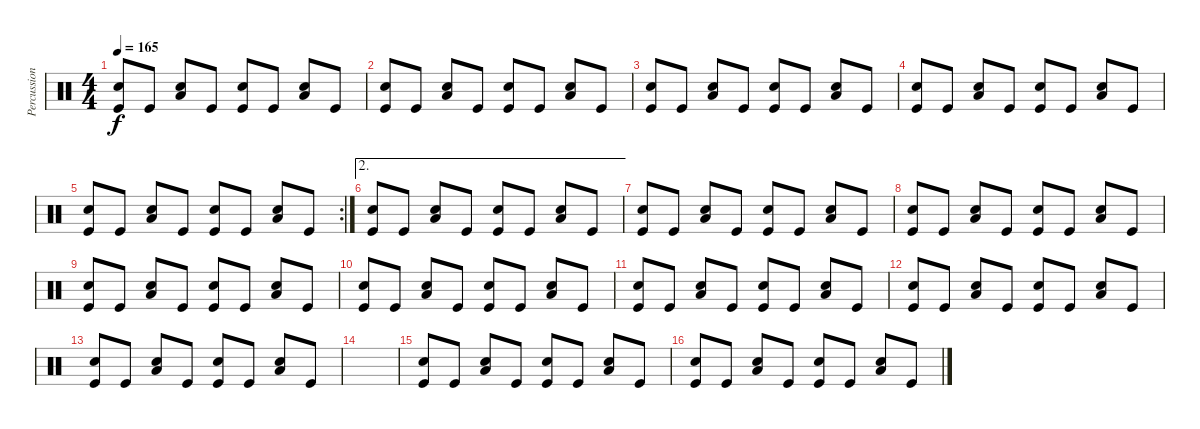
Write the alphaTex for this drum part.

\track ("Percussions" "Percussion") {instrument percussion}
\staff {score}
\articulation defaults
\ts (4 4)
\tempo 165
\clef neutral
\ks c
("Snare (hit) 2" "Kick (hit)").8{dy f} "Kick (hit)".8 ("Snare (hit) 2" "Low Floor Tom (hit)").8 "Kick (hit)".8 ("Snare (hit) 2" "Kick (hit)").8 "Kick (hit)".8 ("Snare (hit) 2" "Low Floor Tom (hit)").8 "Kick (hit)".8 |
("Snare (hit) 2" "Kick (hit)").8 "Kick (hit)".8 ("Snare (hit) 2" "Low Floor Tom (hit)").8 "Kick (hit)".8 ("Snare (hit) 2" "Kick (hit)").8 "Kick (hit)".8 ("Snare (hit) 2" "Low Floor Tom (hit)").8 "Kick (hit)".8 |
("Snare (hit) 2" "Kick (hit)").8 "Kick (hit)".8 ("Snare (hit) 2" "Low Floor Tom (hit)").8 "Kick (hit)".8 ("Snare (hit) 2" "Kick (hit)").8 "Kick (hit)".8 ("Snare (hit) 2" "Low Floor Tom (hit)").8 "Kick (hit)".8 |
("Snare (hit) 2" "Kick (hit)").8 "Kick (hit)".8 ("Snare (hit) 2" "Low Floor Tom (hit)").8 "Kick (hit)".8 ("Snare (hit) 2" "Kick (hit)").8 "Kick (hit)".8 ("Snare (hit) 2" "Low Floor Tom (hit)").8 "Kick (hit)".8 |
\rc 2
("Snare (hit) 2" "Kick (hit)").8 "Kick (hit)".8 ("Snare (hit) 2" "Low Floor Tom (hit)").8 "Kick (hit)".8 ("Snare (hit) 2" "Kick (hit)").8 "Kick (hit)".8 ("Snare (hit) 2" "Low Floor Tom (hit)").8 "Kick (hit)".8 |
\ae 2
("Snare (hit) 2" "Kick (hit)").8 "Kick (hit)".8 ("Snare (hit) 2" "Low Floor Tom (hit)").8 "Kick (hit)".8 ("Snare (hit) 2" "Kick (hit)").8 "Kick (hit)".8 ("Snare (hit) 2" "Low Floor Tom (hit)").8 "Kick (hit)".8 |
("Snare (hit) 2" "Kick (hit)").8 "Kick (hit)".8 ("Snare (hit) 2" "Low Floor Tom (hit)").8 "Kick (hit)".8 ("Snare (hit) 2" "Kick (hit)").8 "Kick (hit)".8 ("Snare (hit) 2" "Low Floor Tom (hit)").8 "Kick (hit)".8 |
("Snare (hit) 2" "Kick (hit)").8 "Kick (hit)".8 ("Snare (hit) 2" "Low Floor Tom (hit)").8 "Kick (hit)".8 ("Snare (hit) 2" "Kick (hit)").8 "Kick (hit)".8 ("Snare (hit) 2" "Low Floor Tom (hit)").8 "Kick (hit)".8 |
("Snare (hit) 2" "Kick (hit)").8 "Kick (hit)".8 ("Snare (hit) 2" "Low Floor Tom (hit)").8 "Kick (hit)".8 ("Snare (hit) 2" "Kick (hit)").8 "Kick (hit)".8 ("Snare (hit) 2" "Low Floor Tom (hit)").8 "Kick (hit)".8 |
("Snare (hit) 2" "Kick (hit)").8 "Kick (hit)".8 ("Snare (hit) 2" "Low Floor Tom (hit)").8 "Kick (hit)".8 ("Snare (hit) 2" "Kick (hit)").8 "Kick (hit)".8 ("Snare (hit) 2" "Low Floor Tom (hit)").8 "Kick (hit)".8 |
("Snare (hit) 2" "Kick (hit)").8 "Kick (hit)".8 ("Snare (hit) 2" "Low Floor Tom (hit)").8 "Kick (hit)".8 ("Snare (hit) 2" "Kick (hit)").8 "Kick (hit)".8 ("Snare (hit) 2" "Low Floor Tom (hit)").8 "Kick (hit)".8 |
("Snare (hit) 2" "Kick (hit)").8 "Kick (hit)".8 ("Snare (hit) 2" "Low Floor Tom (hit)").8 "Kick (hit)".8 ("Snare (hit) 2" "Kick (hit)").8 "Kick (hit)".8 ("Snare (hit) 2" "Low Floor Tom (hit)").8 "Kick (hit)".8 |
("Snare (hit) 2" "Kick (hit)").8 "Kick (hit)".8 ("Snare (hit) 2" "Low Floor Tom (hit)").8 "Kick (hit)".8 ("Snare (hit) 2" "Kick (hit)").8 "Kick (hit)".8 ("Snare (hit) 2" "Low Floor Tom (hit)").8 "Kick (hit)".8 |
|
("Snare (hit) 2" "Kick (hit)").8 "Kick (hit)".8 ("Snare (hit) 2" "Low Floor Tom (hit)").8 "Kick (hit)".8 ("Snare (hit) 2" "Kick (hit)").8 "Kick (hit)".8 ("Snare (hit) 2" "Low Floor Tom (hit)").8 "Kick (hit)".8 |
("Snare (hit) 2" "Kick (hit)").8 "Kick (hit)".8 ("Snare (hit) 2" "Low Floor Tom (hit)").8 "Kick (hit)".8 ("Snare (hit) 2" "Kick (hit)").8 "Kick (hit)".8 ("Snare (hit) 2" "Low Floor Tom (hit)").8 "Kick (hit)".8
